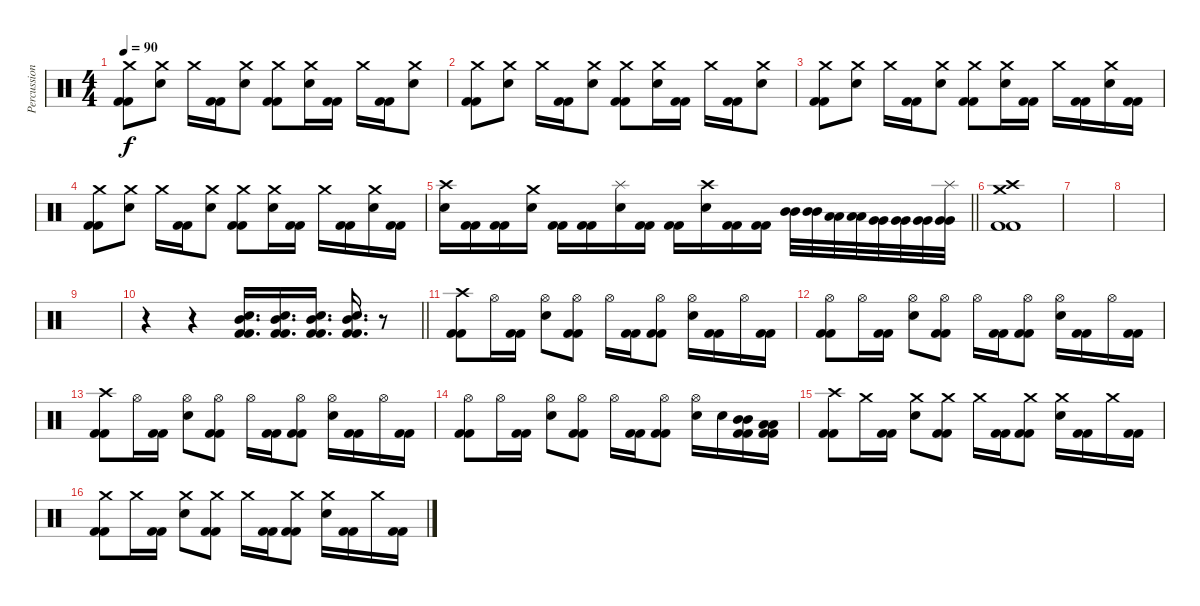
\track ("Percussion" "Percussion") {instrument percussion}
\staff {score}
\articulation defaults
\ts (4 4)
\tempo 90
\clef neutral
\ks c
("Crash medium (hit)" "Kick (hit) 2" "Kick (hit) 2").8{dy f} ("Crash medium (hit)" "Electric Snare (hit)").8 "Crash medium (hit)".16 ("Kick (hit) 2" "Kick (hit) 2").16 ("Crash medium (hit)" "Electric Snare (hit)").8 ("Crash medium (hit)" "Kick (hit) 2" "Kick (hit) 2").8 ("Crash medium (hit)" "Electric Snare (hit)").16 ("Kick (hit) 2" "Kick (hit) 2").16 "Crash medium (hit)".16 ("Kick (hit) 2" "Kick (hit) 2").16 ("Crash medium (hit)" "Electric Snare (hit)").8 |
("Crash medium (hit)" "Kick (hit) 2" "Kick (hit) 2").8 ("Crash medium (hit)" "Electric Snare (hit)").8 "Crash medium (hit)".16 ("Kick (hit) 2" "Kick (hit) 2").16 ("Crash medium (hit)" "Electric Snare (hit)").8 ("Crash medium (hit)" "Kick (hit) 2" "Kick (hit) 2").8 ("Crash medium (hit)" "Electric Snare (hit)").16 ("Kick (hit) 2" "Kick (hit) 2").16 "Crash medium (hit)".16 ("Kick (hit) 2" "Kick (hit) 2").16 ("Crash medium (hit)" "Electric Snare (hit)").8 |
("Crash medium (hit)" "Kick (hit) 2" "Kick (hit) 2").8 ("Crash medium (hit)" "Electric Snare (hit)").8 "Crash medium (hit)".16 ("Kick (hit) 2" "Kick (hit) 2").16 ("Crash medium (hit)" "Electric Snare (hit)").8 ("Crash medium (hit)" "Kick (hit) 2" "Kick (hit) 2").8 ("Crash medium (hit)" "Electric Snare (hit)").16 ("Kick (hit) 2" "Kick (hit) 2").16 "Crash medium (hit)".16 ("Kick (hit) 2" "Kick (hit) 2").16 ("Crash medium (hit)" "Electric Snare (hit)").16 ("Kick (hit) 2" "Kick (hit) 2").16 |
("Crash medium (hit)" "Kick (hit) 2" "Kick (hit) 2").8 ("Crash medium (hit)" "Electric Snare (hit)").8 "Crash medium (hit)".16 ("Kick (hit) 2" "Kick (hit) 2").16 ("Crash medium (hit)" "Electric Snare (hit)").8 ("Crash medium (hit)" "Kick (hit) 2" "Kick (hit) 2").8 ("Crash medium (hit)" "Electric Snare (hit)").16 ("Kick (hit) 2" "Kick (hit) 2").16 "Crash medium (hit)".16 ("Kick (hit) 2" "Kick (hit) 2").16 ("Crash medium (hit)" "Electric Snare (hit)").16 ("Kick (hit) 2" "Kick (hit) 2").16 |
\barLineRight lightlight
("Crash high (hit)" "Electric Snare (hit)").16 ("Kick (hit) 2" "Kick (hit) 2").16 ("Kick (hit) 2" "Kick (hit) 2").16 ("Crash medium (hit)" "Electric Snare (hit)").16 ("Kick (hit) 2" "Kick (hit) 2").16 ("Kick (hit) 2" "Kick (hit) 2").16 ("Splash (hit)" "Electric Snare (hit)").16 ("Kick (hit) 2" "Kick (hit) 2").16 ("Kick (hit) 2" "Kick (hit) 2").16 ("Crash high (hit)" "Electric Snare (hit)").16 ("Kick (hit) 2" "Kick (hit) 2").16 ("Kick (hit) 2" "Kick (hit) 2").16 ("Mid Tom (hit)" "Mid Tom (hit)").32 ("Mid Tom (hit)" "Mid Tom (hit)").32 ("Low Tom (hit)" "Low Tom (hit)").32 ("Low Tom (hit)" "Low Tom (hit)").32 ("Very Low Tom (hit)" "Very Low Tom (hit)").32 ("Very Low Tom (hit)" "Very Low Tom (hit)").32 ("Very Low Tom (hit)" "Very Low Tom (hit)").32 ("Splash (hit)" "Very Low Tom (hit)" "Very Low Tom (hit)").32 |
("Crash high (hit)" "Crash medium (hit)" "Kick (hit) 2" "Kick (hit) 2").1 |
|
|
|
\barLineRight lightlight
r.4 r.4 ("Mid Tom (hit)" "Electric Snare (hit)" "Kick (hit) 2" "Kick (hit) 2").16{d} ("Mid Tom (hit)" "Electric Snare (hit)" "Kick (hit) 2" "Kick (hit) 2").16{d} ("Mid Tom (hit)" "Electric Snare (hit)" "Kick (hit) 2" "Kick (hit) 2").16{d} ("Mid Tom (hit)" "Electric Snare (hit)" "Kick (hit) 2" "Kick (hit) 2").16{d} r.8 |
\section ("" "")
("Crash high (hit)" "Kick (hit) 2" "Kick (hit) 2").8 "Hi-Hat (open)".16 ("Kick (hit) 2" "Kick (hit) 2").16 ("Hi-Hat (open)" "Electric Snare (hit)").8 ("Hi-Hat (open)" "Kick (hit) 2" "Kick (hit) 2").8 "Hi-Hat (open)".16 ("Kick (hit) 2" "Kick (hit) 2").16 ("Hi-Hat (open)" "Kick (hit) 2" "Kick (hit) 2").8 ("Hi-Hat (open)" "Electric Snare (hit)").16 ("Kick (hit) 2" "Kick (hit) 2").16 "Hi-Hat (open)".16 ("Kick (hit) 2" "Kick (hit) 2").16 |
("Hi-Hat (open)" "Kick (hit) 2" "Kick (hit) 2").8 "Hi-Hat (open)".16 ("Kick (hit) 2" "Kick (hit) 2").16 ("Hi-Hat (open)" "Electric Snare (hit)").8 ("Hi-Hat (open)" "Kick (hit) 2" "Kick (hit) 2").8 "Hi-Hat (open)".16 ("Kick (hit) 2" "Kick (hit) 2").16 ("Hi-Hat (open)" "Kick (hit) 2" "Kick (hit) 2").8 ("Hi-Hat (open)" "Electric Snare (hit)").16 ("Kick (hit) 2" "Kick (hit) 2").16 "Hi-Hat (open)".16 ("Kick (hit) 2" "Kick (hit) 2").16 |
("Crash high (hit)" "Kick (hit) 2" "Kick (hit) 2").8 "Hi-Hat (open)".16 ("Kick (hit) 2" "Kick (hit) 2").16 ("Hi-Hat (open)" "Electric Snare (hit)").8 ("Hi-Hat (open)" "Kick (hit) 2" "Kick (hit) 2").8 "Hi-Hat (open)".16 ("Kick (hit) 2" "Kick (hit) 2").16 ("Hi-Hat (open)" "Kick (hit) 2" "Kick (hit) 2").8 ("Hi-Hat (open)" "Electric Snare (hit)").16 ("Kick (hit) 2" "Kick (hit) 2").16 "Hi-Hat (open)".16 ("Kick (hit) 2" "Kick (hit) 2").16 |
("Hi-Hat (open)" "Kick (hit) 2" "Kick (hit) 2").8 "Hi-Hat (open)".16 ("Kick (hit) 2" "Kick (hit) 2").16 ("Hi-Hat (open)" "Electric Snare (hit)").8 ("Hi-Hat (open)" "Kick (hit) 2" "Kick (hit) 2").8 "Hi-Hat (open)".16 ("Kick (hit) 2" "Kick (hit) 2").16 ("Hi-Hat (open)" "Kick (hit) 2" "Kick (hit) 2").8 ("Hi-Hat (open)" "Electric Snare (hit)").16 "Electric Snare (hit)".16 ("Mid Tom (hit)" "Mid Tom (hit)" "Kick (hit) 2" "Kick (hit) 2").16 ("Low Tom (hit)" "Low Tom (hit)" "Kick (hit) 2" "Kick (hit) 2").16 |
("Crash high (hit)" "Kick (hit) 2" "Kick (hit) 2").8 "Crash medium (hit)".16 ("Kick (hit) 2" "Kick (hit) 2").16 ("Crash medium (hit)" "Electric Snare (hit)").8 ("Crash medium (hit)" "Kick (hit) 2" "Kick (hit) 2").8 "Crash medium (hit)".16 ("Kick (hit) 2" "Kick (hit) 2").16 ("Crash medium (hit)" "Kick (hit) 2" "Kick (hit) 2").8 ("Crash medium (hit)" "Electric Snare (hit)").16 ("Kick (hit) 2" "Kick (hit) 2").16 "Crash medium (hit)".16 ("Kick (hit) 2" "Kick (hit) 2").16 |
("Crash medium (hit)" "Kick (hit) 2" "Kick (hit) 2").8 "Crash medium (hit)".16 ("Kick (hit) 2" "Kick (hit) 2").16 ("Crash medium (hit)" "Electric Snare (hit)").8 ("Crash medium (hit)" "Kick (hit) 2" "Kick (hit) 2").8 "Crash medium (hit)".16 ("Kick (hit) 2" "Kick (hit) 2").16 ("Crash medium (hit)" "Kick (hit) 2" "Kick (hit) 2").8 ("Crash medium (hit)" "Electric Snare (hit)").16 ("Kick (hit) 2" "Kick (hit) 2").16 "Crash medium (hit)".16 ("Kick (hit) 2" "Kick (hit) 2").16
